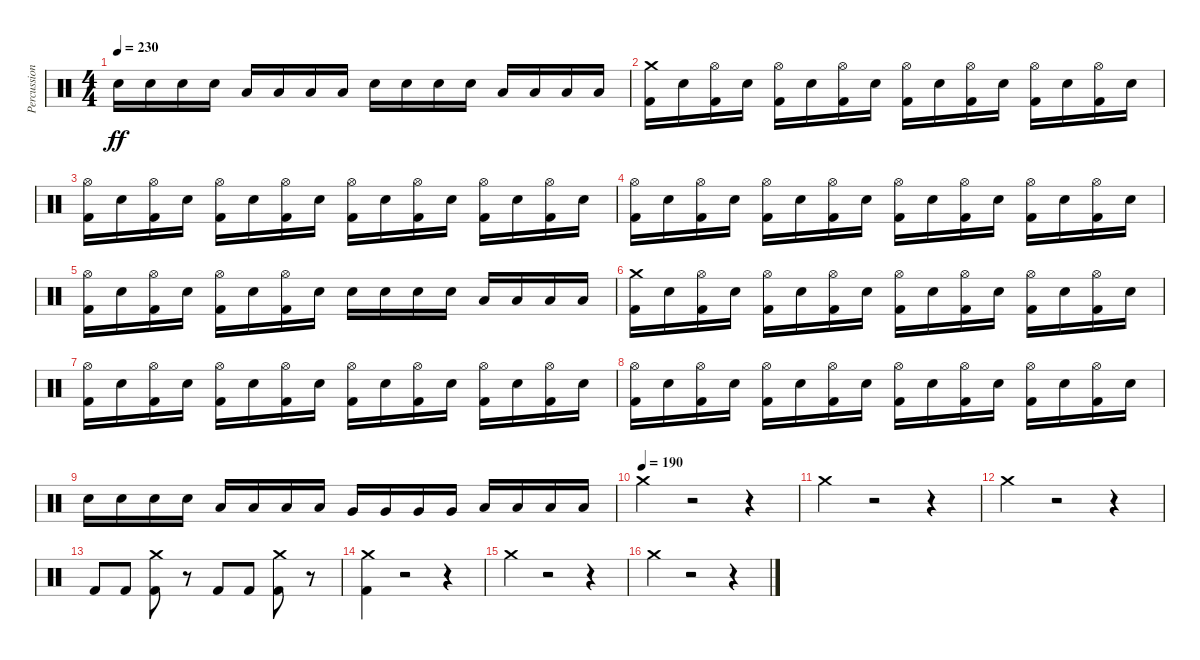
\track ("Percussion" "Percussion") {instrument percussion}
\staff {score}
\articulation defaults
\ts (4 4)
\tempo 230
\clef neutral
\ks c "Electric Snare (hit)".16{dy ff} "Electric Snare (hit)".16 "Electric Snare (hit)".16 "Electric Snare (hit)".16 "Low Tom (hit)".16 "Low Tom (hit)".16 "Low Tom (hit)".16 "Low Tom (hit)".16 "Electric Snare (hit)".16 "Electric Snare (hit)".16 "Electric Snare (hit)".16 "Electric Snare (hit)".16 "Low Tom (hit)".16 "Low Tom (hit)".16 "Low Tom (hit)".16 "Low Tom (hit)".16
|
("Kick (hit) 2" "Crash medium (hit)").16 "Electric Snare (hit)".16 ("Kick (hit) 2" "Hi-Hat (open)").16 "Electric Snare (hit)".16 ("Kick (hit) 2" "Hi-Hat (open)").16 "Electric Snare (hit)".16 ("Kick (hit) 2" "Hi-Hat (open)").16 "Electric Snare (hit)".16 ("Kick (hit) 2" "Hi-Hat (open)").16 "Electric Snare (hit)".16 ("Kick (hit) 2" "Hi-Hat (open)").16 "Electric Snare (hit)".16 ("Kick (hit) 2" "Hi-Hat (open)").16 "Electric Snare (hit)".16 ("Kick (hit) 2" "Hi-Hat (open)").16 "Electric Snare (hit)".16 |
("Kick (hit) 2" "Hi-Hat (open)").16 "Electric Snare (hit)".16 ("Kick (hit) 2" "Hi-Hat (open)").16 "Electric Snare (hit)".16 ("Kick (hit) 2" "Hi-Hat (open)").16 "Electric Snare (hit)".16 ("Kick (hit) 2" "Hi-Hat (open)").16 "Electric Snare (hit)".16 ("Kick (hit) 2" "Hi-Hat (open)").16 "Electric Snare (hit)".16 ("Kick (hit) 2" "Hi-Hat (open)").16 "Electric Snare (hit)".16 ("Kick (hit) 2" "Hi-Hat (open)").16 "Electric Snare (hit)".16 ("Kick (hit) 2" "Hi-Hat (open)").16 "Electric Snare (hit)".16 |
("Kick (hit) 2" "Hi-Hat (open)").16 "Electric Snare (hit)".16 ("Kick (hit) 2" "Hi-Hat (open)").16 "Electric Snare (hit)".16 ("Kick (hit) 2" "Hi-Hat (open)").16 "Electric Snare (hit)".16 ("Kick (hit) 2" "Hi-Hat (open)").16 "Electric Snare (hit)".16 ("Kick (hit) 2" "Hi-Hat (open)").16 "Electric Snare (hit)".16 ("Kick (hit) 2" "Hi-Hat (open)").16 "Electric Snare (hit)".16 ("Kick (hit) 2" "Hi-Hat (open)").16 "Electric Snare (hit)".16 ("Kick (hit) 2" "Hi-Hat (open)").16 "Electric Snare (hit)".16 |
("Kick (hit) 2" "Hi-Hat (open)").16 "Electric Snare (hit)".16 ("Kick (hit) 2" "Hi-Hat (open)").16 "Electric Snare (hit)".16 ("Kick (hit) 2" "Hi-Hat (open)").16 "Electric Snare (hit)".16 ("Kick (hit) 2" "Hi-Hat (open)").16 "Electric Snare (hit)".16 "Electric Snare (hit)".16 "Electric Snare (hit)".16 "Electric Snare (hit)".16 "Electric Snare (hit)".16 "Low Tom (hit)".16 "Low Tom (hit)".16 "Low Tom (hit)".16 "Low Tom (hit)".16 |
("Kick (hit) 2" "Crash medium (hit)").16 "Electric Snare (hit)".16 ("Kick (hit) 2" "Hi-Hat (open)").16 "Electric Snare (hit)".16 ("Kick (hit) 2" "Hi-Hat (open)").16 "Electric Snare (hit)".16 ("Kick (hit) 2" "Hi-Hat (open)").16 "Electric Snare (hit)".16 ("Kick (hit) 2" "Hi-Hat (open)").16 "Electric Snare (hit)".16 ("Kick (hit) 2" "Hi-Hat (open)").16 "Electric Snare (hit)".16 ("Kick (hit) 2" "Hi-Hat (open)").16 "Electric Snare (hit)".16 ("Kick (hit) 2" "Hi-Hat (open)").16 "Electric Snare (hit)".16 |
("Kick (hit) 2" "Hi-Hat (open)").16 "Electric Snare (hit)".16 ("Kick (hit) 2" "Hi-Hat (open)").16 "Electric Snare (hit)".16 ("Kick (hit) 2" "Hi-Hat (open)").16 "Electric Snare (hit)".16 ("Kick (hit) 2" "Hi-Hat (open)").16 "Electric Snare (hit)".16 ("Kick (hit) 2" "Hi-Hat (open)").16 "Electric Snare (hit)".16 ("Kick (hit) 2" "Hi-Hat (open)").16 "Electric Snare (hit)".16 ("Kick (hit) 2" "Hi-Hat (open)").16 "Electric Snare (hit)".16 ("Kick (hit) 2" "Hi-Hat (open)").16 "Electric Snare (hit)".16 |
("Kick (hit) 2" "Hi-Hat (open)").16 "Electric Snare (hit)".16 ("Kick (hit) 2" "Hi-Hat (open)").16 "Electric Snare (hit)".16 ("Kick (hit) 2" "Hi-Hat (open)").16 "Electric Snare (hit)".16 ("Kick (hit) 2" "Hi-Hat (open)").16 "Electric Snare (hit)".16 ("Kick (hit) 2" "Hi-Hat (open)").16 "Electric Snare (hit)".16 ("Kick (hit) 2" "Hi-Hat (open)").16 "Electric Snare (hit)".16 ("Kick (hit) 2" "Hi-Hat (open)").16 "Electric Snare (hit)".16 ("Kick (hit) 2" "Hi-Hat (open)").16 "Electric Snare (hit)".16 |
"Electric Snare (hit)".16 "Electric Snare (hit)".16 "Electric Snare (hit)".16 "Electric Snare (hit)".16 "Low Tom (hit)".16 "Low Tom (hit)".16 "Low Tom (hit)".16 "Low Tom (hit)".16 "Very Low Tom (hit)".16 "Very Low Tom (hit)".16 "Very Low Tom (hit)".16 "Very Low Tom (hit)".16 "Low Floor Tom (hit)".16 "Low Floor Tom (hit)".16 "Low Floor Tom (hit)".16 "Low Floor Tom (hit)".16 |
\tempo (190)
"Crash medium (hit)".4 r.2 r.4 |
"Crash medium (hit)".4 r.2 r.4 |
"Crash medium (hit)".4 r.2 r.4 |
"Kick (hit) 2".8 "Kick (hit) 2".8 ("Kick (hit) 2" "Crash medium (hit)").8 r.8 "Kick (hit) 2".8 "Kick (hit) 2".8 ("Kick (hit) 2" "Crash medium (hit)").8 r.8 |
("Kick (hit) 2" "Crash medium (hit)").4 r.2 r.4 |
"Crash medium (hit)".4 r.2 r.4 |
"Crash medium (hit)".4 r.2 r.4
